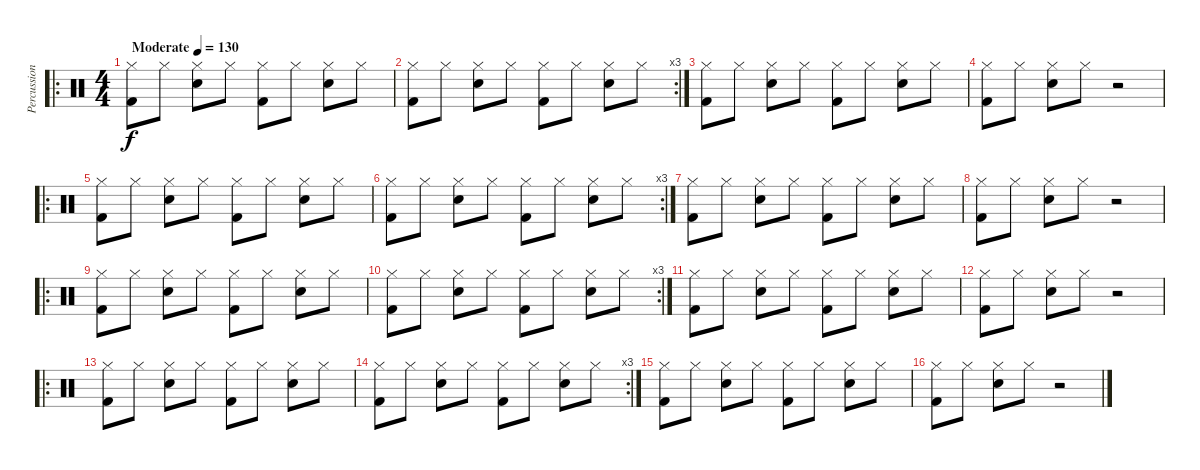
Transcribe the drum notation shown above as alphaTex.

\track ("Percussion" "Percussion") {instrument percussion}
\staff {score}
\articulation defaults
\ro
\ts (4 4)
\tempo (130 "Moderate")
\clef neutral
\ks c
("Hi-Hat (closed)" "Kick (hit) 2").8{dy f} "Hi-Hat (closed)".8 ("Hi-Hat (closed)" "Electric Snare (hit)").8 "Hi-Hat (closed)".8 ("Hi-Hat (closed)" "Kick (hit) 2").8 "Hi-Hat (closed)".8 ("Hi-Hat (closed)" "Electric Snare (hit)").8 "Hi-Hat (closed)".8 |
\rc 3
("Hi-Hat (closed)" "Kick (hit) 2").8 "Hi-Hat (closed)".8 ("Hi-Hat (closed)" "Electric Snare (hit)").8 "Hi-Hat (closed)".8 ("Hi-Hat (closed)" "Kick (hit) 2").8 "Hi-Hat (closed)".8 ("Hi-Hat (closed)" "Electric Snare (hit)").8 "Hi-Hat (closed)".8 |
("Hi-Hat (closed)" "Kick (hit) 2").8 "Hi-Hat (closed)".8 ("Hi-Hat (closed)" "Electric Snare (hit)").8 "Hi-Hat (closed)".8 ("Hi-Hat (closed)" "Kick (hit) 2").8 "Hi-Hat (closed)".8 ("Hi-Hat (closed)" "Electric Snare (hit)").8 "Hi-Hat (closed)".8 |
("Hi-Hat (closed)" "Kick (hit) 2").8 "Hi-Hat (closed)".8 ("Hi-Hat (closed)" "Electric Snare (hit)").8 "Hi-Hat (closed)".8 r.2 |
\ro
("Hi-Hat (closed)" "Kick (hit) 2").8 "Hi-Hat (closed)".8 ("Hi-Hat (closed)" "Electric Snare (hit)").8 "Hi-Hat (closed)".8 ("Hi-Hat (closed)" "Kick (hit) 2").8 "Hi-Hat (closed)".8 ("Hi-Hat (closed)" "Electric Snare (hit)").8 "Hi-Hat (closed)".8 |
\rc 3
("Hi-Hat (closed)" "Kick (hit) 2").8 "Hi-Hat (closed)".8 ("Hi-Hat (closed)" "Electric Snare (hit)").8 "Hi-Hat (closed)".8 ("Hi-Hat (closed)" "Kick (hit) 2").8 "Hi-Hat (closed)".8 ("Hi-Hat (closed)" "Electric Snare (hit)").8 "Hi-Hat (closed)".8 |
("Hi-Hat (closed)" "Kick (hit) 2").8 "Hi-Hat (closed)".8 ("Hi-Hat (closed)" "Electric Snare (hit)").8 "Hi-Hat (closed)".8 ("Hi-Hat (closed)" "Kick (hit) 2").8 "Hi-Hat (closed)".8 ("Hi-Hat (closed)" "Electric Snare (hit)").8 "Hi-Hat (closed)".8 |
("Hi-Hat (closed)" "Kick (hit) 2").8 "Hi-Hat (closed)".8 ("Hi-Hat (closed)" "Electric Snare (hit)").8 "Hi-Hat (closed)".8 r.2 |
\ro
("Hi-Hat (closed)" "Kick (hit) 2").8 "Hi-Hat (closed)".8 ("Hi-Hat (closed)" "Electric Snare (hit)").8 "Hi-Hat (closed)".8 ("Hi-Hat (closed)" "Kick (hit) 2").8 "Hi-Hat (closed)".8 ("Hi-Hat (closed)" "Electric Snare (hit)").8 "Hi-Hat (closed)".8 |
\rc 3
("Hi-Hat (closed)" "Kick (hit) 2").8 "Hi-Hat (closed)".8 ("Hi-Hat (closed)" "Electric Snare (hit)").8 "Hi-Hat (closed)".8 ("Hi-Hat (closed)" "Kick (hit) 2").8 "Hi-Hat (closed)".8 ("Hi-Hat (closed)" "Electric Snare (hit)").8 "Hi-Hat (closed)".8 |
("Hi-Hat (closed)" "Kick (hit) 2").8 "Hi-Hat (closed)".8 ("Hi-Hat (closed)" "Electric Snare (hit)").8 "Hi-Hat (closed)".8 ("Hi-Hat (closed)" "Kick (hit) 2").8 "Hi-Hat (closed)".8 ("Hi-Hat (closed)" "Electric Snare (hit)").8 "Hi-Hat (closed)".8 |
("Hi-Hat (closed)" "Kick (hit) 2").8 "Hi-Hat (closed)".8 ("Hi-Hat (closed)" "Electric Snare (hit)").8 "Hi-Hat (closed)".8 r.2 |
\ro
("Hi-Hat (closed)" "Kick (hit) 2").8 "Hi-Hat (closed)".8 ("Hi-Hat (closed)" "Electric Snare (hit)").8 "Hi-Hat (closed)".8 ("Hi-Hat (closed)" "Kick (hit) 2").8 "Hi-Hat (closed)".8 ("Hi-Hat (closed)" "Electric Snare (hit)").8 "Hi-Hat (closed)".8 |
\rc 3
("Hi-Hat (closed)" "Kick (hit) 2").8 "Hi-Hat (closed)".8 ("Hi-Hat (closed)" "Electric Snare (hit)").8 "Hi-Hat (closed)".8 ("Hi-Hat (closed)" "Kick (hit) 2").8 "Hi-Hat (closed)".8 ("Hi-Hat (closed)" "Electric Snare (hit)").8 "Hi-Hat (closed)".8 |
("Hi-Hat (closed)" "Kick (hit) 2").8 "Hi-Hat (closed)".8 ("Hi-Hat (closed)" "Electric Snare (hit)").8 "Hi-Hat (closed)".8 ("Hi-Hat (closed)" "Kick (hit) 2").8 "Hi-Hat (closed)".8 ("Hi-Hat (closed)" "Electric Snare (hit)").8 "Hi-Hat (closed)".8 |
("Hi-Hat (closed)" "Kick (hit) 2").8 "Hi-Hat (closed)".8 ("Hi-Hat (closed)" "Electric Snare (hit)").8 "Hi-Hat (closed)".8 r.2
